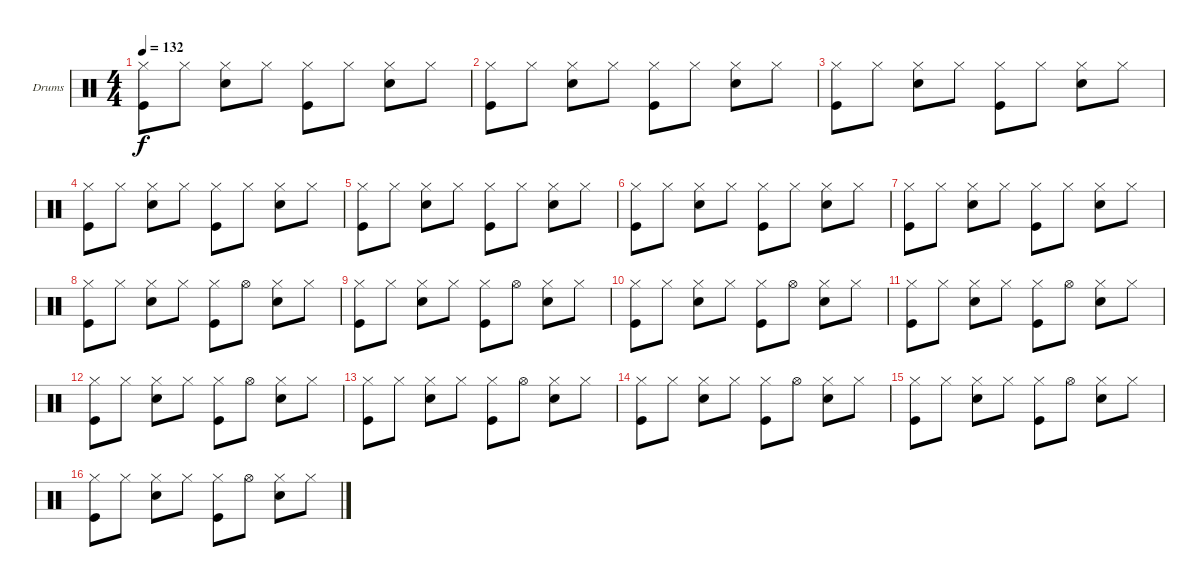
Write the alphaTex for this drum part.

\defaultSystemsLayout 4
\bracketExtendMode groupsimilarinstruments
\firstSystemTrackNameOrientation horizontal
\otherSystemsTrackNameOrientation horizontal
\track ("Fab Moretti" "Drums") {instrument percussion}
\staff {score}
\articulation defaults
\ts (4 4)
\tempo 132
\clef neutral
\ks c
("Hi-Hat (closed)" "Kick (hit)").8{dy f} "Hi-Hat (closed)".8 ("Hi-Hat (closed)" "Snare (hit) 2").8 "Hi-Hat (closed)".8 ("Hi-Hat (closed)" "Kick (hit)").8 "Hi-Hat (closed)".8 ("Hi-Hat (closed)" "Snare (hit) 2").8 "Hi-Hat (closed)".8 |
("Hi-Hat (closed)" "Kick (hit)").8 "Hi-Hat (closed)".8 ("Hi-Hat (closed)" "Snare (hit) 2").8 "Hi-Hat (closed)".8 ("Hi-Hat (closed)" "Kick (hit)").8 "Hi-Hat (closed)".8 ("Hi-Hat (closed)" "Snare (hit) 2").8 "Hi-Hat (closed)".8 |
("Hi-Hat (closed)" "Kick (hit)").8 "Hi-Hat (closed)".8 ("Hi-Hat (closed)" "Snare (hit) 2").8 "Hi-Hat (closed)".8 ("Hi-Hat (closed)" "Kick (hit)").8 "Hi-Hat (closed)".8 ("Hi-Hat (closed)" "Snare (hit) 2").8 "Hi-Hat (closed)".8 |
("Hi-Hat (closed)" "Kick (hit)").8 "Hi-Hat (closed)".8 ("Hi-Hat (closed)" "Snare (hit) 2").8 "Hi-Hat (closed)".8 ("Hi-Hat (closed)" "Kick (hit)").8 "Hi-Hat (closed)".8 ("Hi-Hat (closed)" "Snare (hit) 2").8 "Hi-Hat (closed)".8 |
("Hi-Hat (closed)" "Kick (hit)").8 "Hi-Hat (closed)".8 ("Hi-Hat (closed)" "Snare (hit) 2").8 "Hi-Hat (closed)".8 ("Hi-Hat (closed)" "Kick (hit)").8 "Hi-Hat (closed)".8 ("Hi-Hat (closed)" "Snare (hit) 2").8 "Hi-Hat (closed)".8 |
("Hi-Hat (closed)" "Kick (hit)").8 "Hi-Hat (closed)".8 ("Hi-Hat (closed)" "Snare (hit) 2").8 "Hi-Hat (closed)".8 ("Hi-Hat (closed)" "Kick (hit)").8 "Hi-Hat (closed)".8 ("Hi-Hat (closed)" "Snare (hit) 2").8 "Hi-Hat (closed)".8 |
("Hi-Hat (closed)" "Kick (hit)").8 "Hi-Hat (closed)".8 ("Hi-Hat (closed)" "Snare (hit) 2").8 "Hi-Hat (closed)".8 ("Hi-Hat (closed)" "Kick (hit)").8 "Hi-Hat (closed)".8 ("Hi-Hat (closed)" "Snare (hit) 2").8 "Hi-Hat (closed)".8 |
("Hi-Hat (closed)" "Kick (hit)").8 "Hi-Hat (closed)".8 ("Hi-Hat (closed)" "Snare (hit) 2").8 "Hi-Hat (closed)".8 ("Hi-Hat (closed)" "Kick (hit)").8 "Hi-Hat (open)".8 ("Hi-Hat (closed)" "Snare (hit) 2").8 "Hi-Hat (closed)".8 |
("Hi-Hat (closed)" "Kick (hit)").8 "Hi-Hat (closed)".8 ("Hi-Hat (closed)" "Snare (hit) 2").8 "Hi-Hat (closed)".8 ("Hi-Hat (closed)" "Kick (hit)").8 "Hi-Hat (open)".8 ("Hi-Hat (closed)" "Snare (hit) 2").8 "Hi-Hat (closed)".8 |
("Hi-Hat (closed)" "Kick (hit)").8 "Hi-Hat (closed)".8 ("Hi-Hat (closed)" "Snare (hit) 2").8 "Hi-Hat (closed)".8 ("Hi-Hat (closed)" "Kick (hit)").8 "Hi-Hat (open)".8 ("Hi-Hat (closed)" "Snare (hit) 2").8 "Hi-Hat (closed)".8 |
("Hi-Hat (closed)" "Kick (hit)").8 "Hi-Hat (closed)".8 ("Hi-Hat (closed)" "Snare (hit) 2").8 "Hi-Hat (closed)".8 ("Hi-Hat (closed)" "Kick (hit)").8 "Hi-Hat (open)".8 ("Hi-Hat (closed)" "Snare (hit) 2").8 "Hi-Hat (closed)".8 |
("Hi-Hat (closed)" "Kick (hit)").8 "Hi-Hat (closed)".8 ("Hi-Hat (closed)" "Snare (hit) 2").8 "Hi-Hat (closed)".8 ("Hi-Hat (closed)" "Kick (hit)").8 "Hi-Hat (open)".8 ("Hi-Hat (closed)" "Snare (hit) 2").8 "Hi-Hat (closed)".8 |
("Hi-Hat (closed)" "Kick (hit)").8 "Hi-Hat (closed)".8 ("Hi-Hat (closed)" "Snare (hit) 2").8 "Hi-Hat (closed)".8 ("Hi-Hat (closed)" "Kick (hit)").8 "Hi-Hat (open)".8 ("Hi-Hat (closed)" "Snare (hit) 2").8 "Hi-Hat (closed)".8 |
("Hi-Hat (closed)" "Kick (hit)").8 "Hi-Hat (closed)".8 ("Hi-Hat (closed)" "Snare (hit) 2").8 "Hi-Hat (closed)".8 ("Hi-Hat (closed)" "Kick (hit)").8 "Hi-Hat (open)".8 ("Hi-Hat (closed)" "Snare (hit) 2").8 "Hi-Hat (closed)".8 |
("Hi-Hat (closed)" "Kick (hit)").8 "Hi-Hat (closed)".8 ("Hi-Hat (closed)" "Snare (hit) 2").8 "Hi-Hat (closed)".8 ("Hi-Hat (closed)" "Kick (hit)").8 "Hi-Hat (open)".8 ("Hi-Hat (closed)" "Snare (hit) 2").8 "Hi-Hat (closed)".8 |
("Hi-Hat (closed)" "Kick (hit)").8 "Hi-Hat (closed)".8 ("Hi-Hat (closed)" "Snare (hit) 2").8 "Hi-Hat (closed)".8 ("Hi-Hat (closed)" "Kick (hit)").8 "Hi-Hat (open)".8 ("Hi-Hat (closed)" "Snare (hit) 2").8 "Hi-Hat (closed)".8
